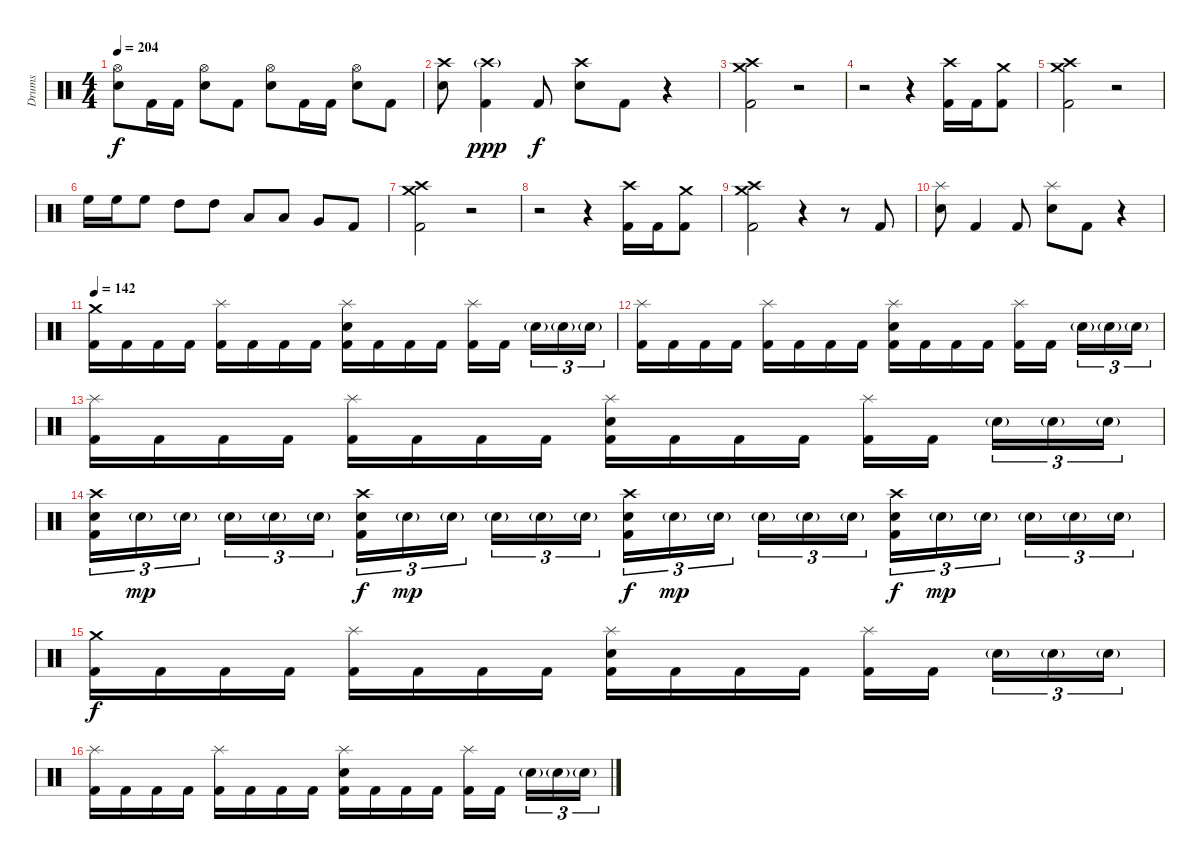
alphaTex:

\track ("Drums" "Drums") {instrument percussion}
\staff {score}
\articulation defaults
\ts (4 4)
\tempo 204
\clef neutral
\ks c
("Hi-Hat (open)" "Electric Snare (hit)").8{dy f} "Kick (hit) 2".16 "Kick (hit) 2".16 ("Hi-Hat (open)" "Electric Snare (hit)").8 "Kick (hit) 2".8 ("Hi-Hat (open)" "Electric Snare (hit)").8 "Kick (hit) 2".16 "Kick (hit) 2".16 ("Hi-Hat (open)" "Electric Snare (hit)").8 "Kick (hit) 2".8 |
("Crash high (hit)" "Electric Snare (hit)").8 ("Crash high (hit)"{g} "Kick (hit) 2").4{dy ppp} "Kick (hit) 2".8{dy f} ("Crash high (hit)" "Electric Snare (hit)").8 "Kick (hit) 2".8 r.4 |
("Crash high (hit)" "Crash medium (hit)" "Kick (hit) 2").2 r.2 |
r.2 r.4 ("Crash high (hit)" "Kick (hit) 2").16 "Kick (hit) 2".16 ("Crash medium (hit)" "Kick (hit) 2").8 |
("Crash high (hit)" "Crash medium (hit)" "Kick (hit) 2").2 r.2 |
"High Floor Tom (hit)".16 "High Floor Tom (hit)".16 "High Floor Tom (hit)".8 "High Tom (hit)".8 "High Tom (hit)".8 "Low Tom (hit)".8 "Low Tom (hit)".8 "Very Low Tom (hit)".8 "Kick (hit) 2".8 |
("Crash high (hit)" "Crash medium (hit)" "Kick (hit) 2").2 r.2 |
r.2 r.4 ("Crash high (hit)" "Kick (hit) 2").16 "Kick (hit) 2".16 ("Crash medium (hit)" "Kick (hit) 2").8 |
("Crash high (hit)" "Crash medium (hit)" "Kick (hit) 2").2 r.4 r.8 "Kick (hit) 2".8 |
("Splash (hit)" "Electric Snare (hit)").8 "Kick (hit) 2".4 "Kick (hit) 2".8 ("Splash (hit)" "Electric Snare (hit)").8 "Kick (hit) 2".8 r.4 |
\tempo 142
("Crash medium (hit)" "Kick (hit) 2").16 "Kick (hit) 2".16 "Kick (hit) 2".16 "Kick (hit) 2".16 ("Splash (hit)" "Kick (hit) 2").16 "Kick (hit) 2".16 "Kick (hit) 2".16 "Kick (hit) 2".16 ("Splash (hit)" "Electric Snare (hit)" "Kick (hit) 2").16 "Kick (hit) 2".16 "Kick (hit) 2".16 "Kick (hit) 2".16 ("Splash (hit)" "Kick (hit) 2").16 "Kick (hit) 2".16{beam splitsecondary} "Electric Snare (hit)"{g}.16{tu (3 2)} "Electric Snare (hit)"{g}.16{tu (3 2)} "Electric Snare (hit)"{g}.16{tu (3 2)} |
("Splash (hit)" "Kick (hit) 2").16 "Kick (hit) 2".16 "Kick (hit) 2".16 "Kick (hit) 2".16 ("Splash (hit)" "Kick (hit) 2").16 "Kick (hit) 2".16 "Kick (hit) 2".16 "Kick (hit) 2".16 ("Splash (hit)" "Electric Snare (hit)" "Kick (hit) 2").16 "Kick (hit) 2".16 "Kick (hit) 2".16 "Kick (hit) 2".16 ("Splash (hit)" "Kick (hit) 2").16 "Kick (hit) 2".16{beam splitsecondary} "Electric Snare (hit)"{g}.16{tu (3 2)} "Electric Snare (hit)"{g}.16{tu (3 2)} "Electric Snare (hit)"{g}.16{tu (3 2)} |
("Splash (hit)" "Kick (hit) 2").16 "Kick (hit) 2".16 "Kick (hit) 2".16 "Kick (hit) 2".16 ("Splash (hit)" "Kick (hit) 2").16 "Kick (hit) 2".16 "Kick (hit) 2".16 "Kick (hit) 2".16 ("Splash (hit)" "Electric Snare (hit)" "Kick (hit) 2").16 "Kick (hit) 2".16 "Kick (hit) 2".16 "Kick (hit) 2".16 ("Splash (hit)" "Kick (hit) 2").16 "Kick (hit) 2".16{beam splitsecondary} "Electric Snare (hit)"{g}.16{tu (3 2)} "Electric Snare (hit)"{g}.16{tu (3 2)} "Electric Snare (hit)"{g}.16{tu (3 2)} |
("Crash high (hit)" "Electric Snare (hit)" "Kick (hit) 2").16{tu (3 2)} "Electric Snare (hit)"{g}.16{tu (3 2) dy mp} "Electric Snare (hit)"{g}.16{tu (3 2) beam splitsecondary} "Electric Snare (hit)"{g}.16{tu (3 2)} "Electric Snare (hit)"{g}.16{tu (3 2)} "Electric Snare (hit)"{g}.16{tu (3 2)} ("Crash high (hit)" "Electric Snare (hit)" "Kick (hit) 2").16{tu (3 2) dy f} "Electric Snare (hit)"{g}.16{tu (3 2) dy mp} "Electric Snare (hit)"{g}.16{tu (3 2) beam splitsecondary} "Electric Snare (hit)"{g}.16{tu (3 2)} "Electric Snare (hit)"{g}.16{tu (3 2)} "Electric Snare (hit)"{g}.16{tu (3 2)} ("Crash high (hit)" "Electric Snare (hit)" "Kick (hit) 2").16{tu (3 2) dy f} "Electric Snare (hit)"{g}.16{tu (3 2) dy mp} "Electric Snare (hit)"{g}.16{tu (3 2) beam splitsecondary} "Electric Snare (hit)"{g}.16{tu (3 2)} "Electric Snare (hit)"{g}.16{tu (3 2)} "Electric Snare (hit)"{g}.16{tu (3 2)} ("Crash high (hit)" "Electric Snare (hit)" "Kick (hit) 2").16{tu (3 2) dy f} "Electric Snare (hit)"{g}.16{tu (3 2) dy mp} "Electric Snare (hit)"{g}.16{tu (3 2) beam splitsecondary} "Electric Snare (hit)"{g}.16{tu (3 2)} "Electric Snare (hit)"{g}.16{tu (3 2)} "Electric Snare (hit)"{g}.16{tu (3 2)} |
("Crash medium (hit)" "Kick (hit) 2").16{dy f} "Kick (hit) 2".16 "Kick (hit) 2".16 "Kick (hit) 2".16 ("Splash (hit)" "Kick (hit) 2").16 "Kick (hit) 2".16 "Kick (hit) 2".16 "Kick (hit) 2".16 ("Splash (hit)" "Electric Snare (hit)" "Kick (hit) 2").16 "Kick (hit) 2".16 "Kick (hit) 2".16 "Kick (hit) 2".16 ("Splash (hit)" "Kick (hit) 2").16 "Kick (hit) 2".16{beam splitsecondary} "Electric Snare (hit)"{g}.16{tu (3 2)} "Electric Snare (hit)"{g}.16{tu (3 2)} "Electric Snare (hit)"{g}.16{tu (3 2)} |
("Splash (hit)" "Kick (hit) 2").16 "Kick (hit) 2".16 "Kick (hit) 2".16 "Kick (hit) 2".16 ("Splash (hit)" "Kick (hit) 2").16 "Kick (hit) 2".16 "Kick (hit) 2".16 "Kick (hit) 2".16 ("Splash (hit)" "Electric Snare (hit)" "Kick (hit) 2").16 "Kick (hit) 2".16 "Kick (hit) 2".16 "Kick (hit) 2".16 ("Splash (hit)" "Kick (hit) 2").16 "Kick (hit) 2".16{beam splitsecondary} "Electric Snare (hit)"{g}.16{tu (3 2)} "Electric Snare (hit)"{g}.16{tu (3 2)} "Electric Snare (hit)"{g}.16{tu (3 2)}
